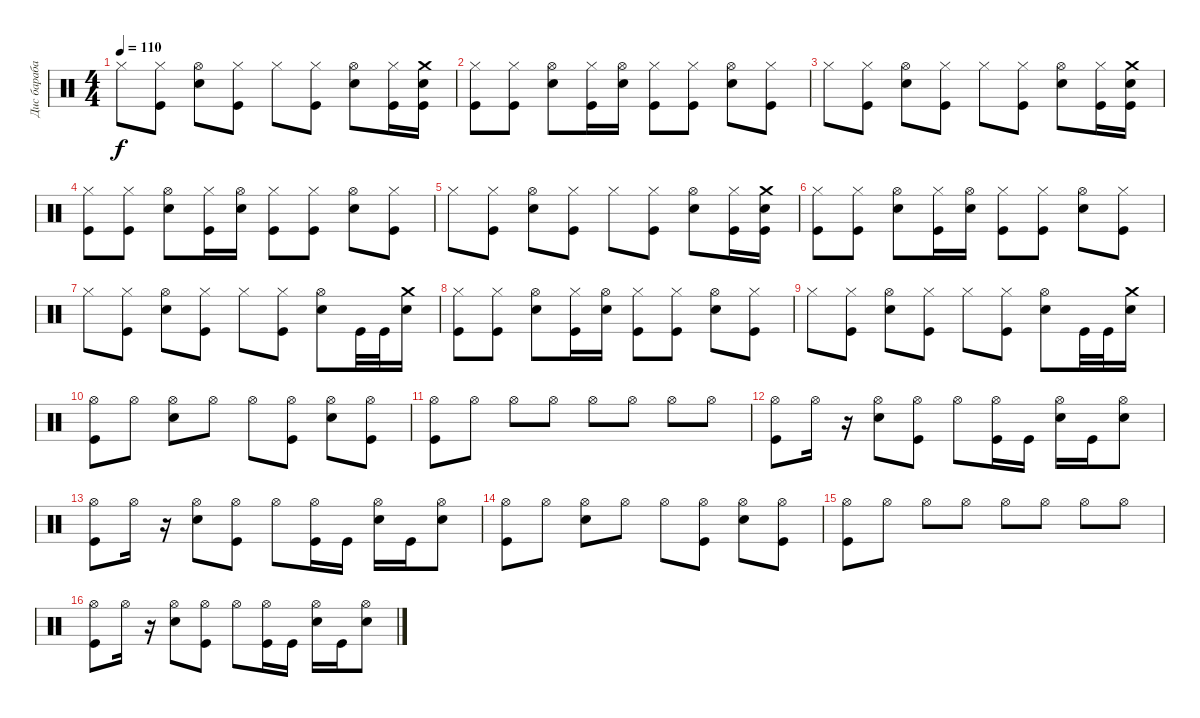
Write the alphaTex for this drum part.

\track ("Дис барабаны" "Дис бараба") {instrument percussion}
\staff {score}
\articulation defaults
\ts (4 4)
\tempo 110
\clef neutral
\ks c "Hi-Hat (closed)".8{dy f}
("Hi-Hat (closed)" "Kick (hit)").8 ("Hi-Hat (open)" "Electric Snare (hit)").8 ("Hi-Hat (closed)" "Kick (hit)").8 "Hi-Hat (closed)".8 ("Hi-Hat (closed)" "Kick (hit)").8 ("Hi-Hat (open)" "Electric Snare (hit)").8 ("Hi-Hat (closed)" "Kick (hit)").16 ("Crash medium (hit)" "Electric Snare (hit)" "Kick (hit)").16 |
("Hi-Hat (closed)" "Kick (hit)").8 ("Hi-Hat (closed)" "Kick (hit)").8 ("Hi-Hat (open)" "Electric Snare (hit)").8 ("Hi-Hat (closed)" "Kick (hit)").16 ("Hi-Hat (open)" "Electric Snare (hit)").16 ("Hi-Hat (closed)" "Kick (hit)").8 ("Hi-Hat (closed)" "Kick (hit)").8 ("Hi-Hat (open)" "Electric Snare (hit)").8 ("Hi-Hat (closed)" "Kick (hit)").8 |
"Hi-Hat (closed)".8 ("Hi-Hat (closed)" "Kick (hit)").8 ("Hi-Hat (open)" "Electric Snare (hit)").8 ("Hi-Hat (closed)" "Kick (hit)").8 "Hi-Hat (closed)".8 ("Hi-Hat (closed)" "Kick (hit)").8 ("Hi-Hat (open)" "Electric Snare (hit)").8 ("Hi-Hat (closed)" "Kick (hit)").16 ("Crash medium (hit)" "Electric Snare (hit)" "Kick (hit)").16 |
("Hi-Hat (closed)" "Kick (hit)").8 ("Hi-Hat (closed)" "Kick (hit)").8 ("Hi-Hat (open)" "Electric Snare (hit)").8 ("Hi-Hat (closed)" "Kick (hit)").16 ("Hi-Hat (open)" "Electric Snare (hit)").16 ("Hi-Hat (closed)" "Kick (hit)").8 ("Hi-Hat (closed)" "Kick (hit)").8 ("Hi-Hat (open)" "Electric Snare (hit)").8 ("Hi-Hat (closed)" "Kick (hit)").8 |
"Hi-Hat (closed)".8 ("Hi-Hat (closed)" "Kick (hit)").8 ("Hi-Hat (open)" "Electric Snare (hit)").8 ("Hi-Hat (closed)" "Kick (hit)").8 "Hi-Hat (closed)".8 ("Hi-Hat (closed)" "Kick (hit)").8 ("Hi-Hat (open)" "Electric Snare (hit)").8 ("Hi-Hat (closed)" "Kick (hit)").16 ("Crash medium (hit)" "Electric Snare (hit)" "Kick (hit)").16 |
("Hi-Hat (closed)" "Kick (hit)").8 ("Hi-Hat (closed)" "Kick (hit)").8 ("Hi-Hat (open)" "Electric Snare (hit)").8 ("Hi-Hat (closed)" "Kick (hit)").16 ("Hi-Hat (open)" "Electric Snare (hit)").16 ("Hi-Hat (closed)" "Kick (hit)").8 ("Hi-Hat (closed)" "Kick (hit)").8 ("Hi-Hat (open)" "Electric Snare (hit)").8 ("Hi-Hat (closed)" "Kick (hit)").8 |
"Hi-Hat (closed)".8 ("Hi-Hat (closed)" "Kick (hit)").8 ("Hi-Hat (open)" "Electric Snare (hit)").8 ("Hi-Hat (closed)" "Kick (hit)").8 "Hi-Hat (closed)".8 ("Hi-Hat (closed)" "Kick (hit)").8 ("Hi-Hat (open)" "Electric Snare (hit)").8 "Kick (hit)".32 "Kick (hit)".32 ("Crash medium (hit)" "Electric Snare (hit)").16 |
("Hi-Hat (closed)" "Kick (hit)").8 ("Hi-Hat (closed)" "Kick (hit)").8 ("Hi-Hat (open)" "Electric Snare (hit)").8 ("Hi-Hat (closed)" "Kick (hit)").16 ("Hi-Hat (open)" "Electric Snare (hit)").16 ("Hi-Hat (closed)" "Kick (hit)").8 ("Hi-Hat (closed)" "Kick (hit)").8 ("Hi-Hat (open)" "Electric Snare (hit)").8 ("Hi-Hat (closed)" "Kick (hit)").8 |
"Hi-Hat (closed)".8 ("Hi-Hat (closed)" "Kick (hit)").8 ("Hi-Hat (open)" "Electric Snare (hit)").8 ("Hi-Hat (closed)" "Kick (hit)").8 "Hi-Hat (closed)".8 ("Hi-Hat (closed)" "Kick (hit)").8 ("Hi-Hat (open)" "Electric Snare (hit)").8 "Kick (hit)".32 "Kick (hit)".32 ("Crash medium (hit)" "Electric Snare (hit)").16 |
("Hi-Hat (open)" "Kick (hit)").8 "Hi-Hat (open)".8 ("Hi-Hat (open)" "Electric Snare (hit)").8 "Hi-Hat (open)".8 "Hi-Hat (open)".8 ("Hi-Hat (open)" "Kick (hit)").8 ("Hi-Hat (open)" "Electric Snare (hit)").8 ("Hi-Hat (open)" "Kick (hit)").8 |
("Hi-Hat (open)" "Kick (hit)").8 "Hi-Hat (open)".8 "Hi-Hat (open)".8 "Hi-Hat (open)".8 "Hi-Hat (open)".8 "Hi-Hat (open)".8 "Hi-Hat (open)".8 "Hi-Hat (open)".8 |
("Hi-Hat (open)" "Kick (hit)").8 "Hi-Hat (open)".16 r.16 ("Hi-Hat (open)" "Electric Snare (hit)").8 ("Hi-Hat (open)" "Kick (hit)").8 "Hi-Hat (open)".8 ("Hi-Hat (open)" "Kick (hit)").16 "Kick (hit)".16 ("Hi-Hat (open)" "Electric Snare (hit)").16 "Kick (hit)".16 ("Hi-Hat (open)" "Electric Snare (hit)").8 |
("Hi-Hat (open)" "Kick (hit)").8 "Hi-Hat (open)".16 r.16 ("Hi-Hat (open)" "Electric Snare (hit)").8 ("Hi-Hat (open)" "Kick (hit)").8 "Hi-Hat (open)".8 ("Hi-Hat (open)" "Kick (hit)").16 "Kick (hit)".16 ("Hi-Hat (open)" "Electric Snare (hit)").16 "Kick (hit)".16 ("Hi-Hat (open)" "Electric Snare (hit)").8 |
("Hi-Hat (open)" "Kick (hit)").8 "Hi-Hat (open)".8 ("Hi-Hat (open)" "Electric Snare (hit)").8 "Hi-Hat (open)".8 "Hi-Hat (open)".8 ("Hi-Hat (open)" "Kick (hit)").8 ("Hi-Hat (open)" "Electric Snare (hit)").8 ("Hi-Hat (open)" "Kick (hit)").8 |
("Hi-Hat (open)" "Kick (hit)").8 "Hi-Hat (open)".8 "Hi-Hat (open)".8 "Hi-Hat (open)".8 "Hi-Hat (open)".8 "Hi-Hat (open)".8 "Hi-Hat (open)".8 "Hi-Hat (open)".8 |
("Hi-Hat (open)" "Kick (hit)").8 "Hi-Hat (open)".16 r.16 ("Hi-Hat (open)" "Electric Snare (hit)").8 ("Hi-Hat (open)" "Kick (hit)").8 "Hi-Hat (open)".8 ("Hi-Hat (open)" "Kick (hit)").16 "Kick (hit)".16 ("Hi-Hat (open)" "Electric Snare (hit)").16 "Kick (hit)".16 ("Hi-Hat (open)" "Electric Snare (hit)").8
